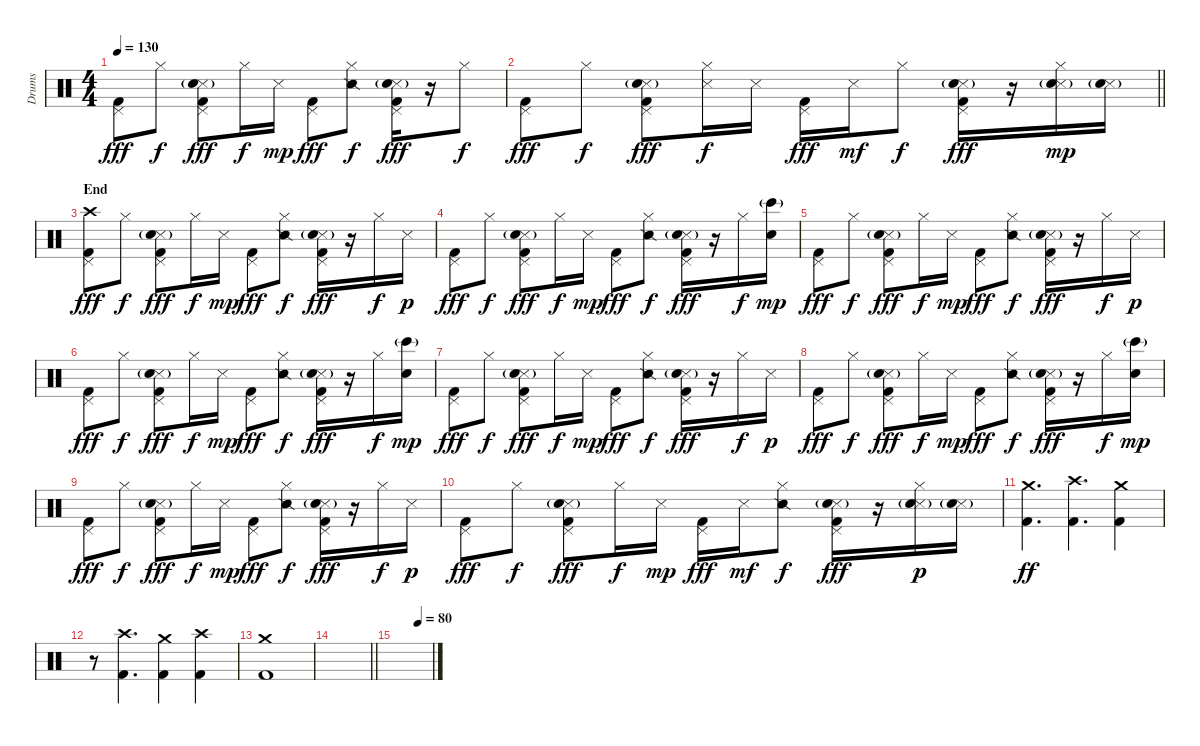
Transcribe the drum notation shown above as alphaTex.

\track ("Drums" "Drums") {instrument percussion}
\staff {score}
\articulation defaults
\ts (4 4)
\tempo 130
\clef neutral
\ks c
("Pedal Hi-Hat (hit)" "Kick (hit) 2").8{dy fff} "Hi-Hat (closed)".8{dy f} ("Pedal Hi-Hat (hit)" "Snare (side stick) 3"{g} "Electric Snare (hit)" "Kick (hit) 2").8{dy fff} "Hi-Hat (closed)".16{dy f} "Snare (side stick) 3".16{dy mp} ("Pedal Hi-Hat (hit)" "Kick (hit) 2").8{dy fff} ("Hi-Hat (closed)" "Snare (side stick) 2").8{dy f} ("Pedal Hi-Hat (hit)" "Snare (side stick) 3"{g} "Electric Snare (hit)" "Kick (hit) 2").16{dy fff} r.16 "Hi-Hat (closed)".8{dy f} |
\barLineRight lightlight
("Pedal Hi-Hat (hit)" "Kick (hit) 2").8{dy fff} "Hi-Hat (closed)".8{dy f} ("Pedal Hi-Hat (hit)" "Snare (side stick) 3"{g} "Electric Snare (hit)" "Kick (hit) 2").8{dy fff} ("Hi-Hat (closed)" "Snare (side stick) 3").16{dy f} "Snare (side stick) 3".16 ("Pedal Hi-Hat (hit)" "Kick (hit) 2").16{dy fff} "Snare (side stick) 3".16{dy mf} "Hi-Hat (closed)".8{dy f} ("Pedal Hi-Hat (hit)" "Snare (side stick) 3"{g} "Electric Snare (hit)" "Kick (hit) 2").16{dy fff} r.16 ("Hi-Hat (closed)" "Snare (side stick) 3"{g} "Electric Snare (hit)").16{dy mp} ("Snare (side stick) 3"{g} "Electric Snare (hit)").16 |
\section ("" "End")
("Crash high (hit)" "Pedal Hi-Hat (hit)" "Kick (hit) 2").8{dy fff} "Hi-Hat (closed)".8{dy f} ("Pedal Hi-Hat (hit)" "Snare (side stick) 3"{g} "Electric Snare (hit)" "Kick (hit) 2").8{dy fff} "Hi-Hat (closed)".16{dy f} "Snare (side stick) 3".16{dy mp} ("Pedal Hi-Hat (hit)" "Kick (hit) 2").8{dy fff} ("Hi-Hat (closed)" "Snare (side stick) 2").8{dy f} ("Pedal Hi-Hat (hit)" "Snare (side stick) 3"{g} "Electric Snare (hit)" "Kick (hit) 2").16{dy fff} r.16 "Hi-Hat (closed)".16{dy f} "Snare (side stick) 3".16{dy p} |
("Pedal Hi-Hat (hit)" "Kick (hit) 2").8{dy fff} "Hi-Hat (closed)".8{dy f} ("Pedal Hi-Hat (hit)" "Snare (side stick) 3"{g} "Electric Snare (hit)" "Kick (hit) 2").8{dy fff} "Hi-Hat (closed)".16{dy f} "Snare (side stick) 3".16{dy mp} ("Pedal Hi-Hat (hit)" "Kick (hit) 2").8{dy fff} ("Hi-Hat (closed)" "Snare (side stick) 2").8{dy f} ("Pedal Hi-Hat (hit)" "Snare (side stick) 3"{g} "Electric Snare (hit)" "Kick (hit) 2").16{dy fff} r.16 "Hi-Hat (closed)".16{dy f} ("Bongo High (hit)"{g} "Electric Snare (hit)").16{dy mp} |
("Pedal Hi-Hat (hit)" "Kick (hit) 2").8{dy fff} "Hi-Hat (closed)".8{dy f} ("Pedal Hi-Hat (hit)" "Snare (side stick) 3"{g} "Electric Snare (hit)" "Kick (hit) 2").8{dy fff} "Hi-Hat (closed)".16{dy f} "Snare (side stick) 3".16{dy mp} ("Pedal Hi-Hat (hit)" "Kick (hit) 2").8{dy fff} ("Hi-Hat (closed)" "Snare (side stick) 2").8{dy f} ("Pedal Hi-Hat (hit)" "Snare (side stick) 3"{g} "Electric Snare (hit)" "Kick (hit) 2").16{dy fff} r.16 "Hi-Hat (closed)".16{dy f} "Snare (side stick) 3".16{dy p} |
("Pedal Hi-Hat (hit)" "Kick (hit) 2").8{dy fff} "Hi-Hat (closed)".8{dy f} ("Pedal Hi-Hat (hit)" "Snare (side stick) 3"{g} "Electric Snare (hit)" "Kick (hit) 2").8{dy fff} "Hi-Hat (closed)".16{dy f} "Snare (side stick) 3".16{dy mp} ("Pedal Hi-Hat (hit)" "Kick (hit) 2").8{dy fff} ("Hi-Hat (closed)" "Snare (side stick) 2").8{dy f} ("Pedal Hi-Hat (hit)" "Snare (side stick) 3"{g} "Electric Snare (hit)" "Kick (hit) 2").16{dy fff} r.16 "Hi-Hat (closed)".16{dy f} ("Bongo High (hit)"{g} "Electric Snare (hit)").16{dy mp} |
("Pedal Hi-Hat (hit)" "Kick (hit) 2").8{dy fff} "Hi-Hat (closed)".8{dy f} ("Pedal Hi-Hat (hit)" "Snare (side stick) 3"{g} "Electric Snare (hit)" "Kick (hit) 2").8{dy fff} "Hi-Hat (closed)".16{dy f} "Snare (side stick) 3".16{dy mp} ("Pedal Hi-Hat (hit)" "Kick (hit) 2").8{dy fff} ("Hi-Hat (closed)" "Snare (side stick) 2").8{dy f} ("Pedal Hi-Hat (hit)" "Snare (side stick) 3"{g} "Electric Snare (hit)" "Kick (hit) 2").16{dy fff} r.16 "Hi-Hat (closed)".16{dy f} "Snare (side stick) 3".16{dy p} |
("Pedal Hi-Hat (hit)" "Kick (hit) 2").8{dy fff} "Hi-Hat (closed)".8{dy f} ("Pedal Hi-Hat (hit)" "Snare (side stick) 3"{g} "Electric Snare (hit)" "Kick (hit) 2").8{dy fff} "Hi-Hat (closed)".16{dy f} "Snare (side stick) 3".16{dy mp} ("Pedal Hi-Hat (hit)" "Kick (hit) 2").8{dy fff} ("Hi-Hat (closed)" "Snare (side stick) 2").8{dy f} ("Pedal Hi-Hat (hit)" "Snare (side stick) 3"{g} "Electric Snare (hit)" "Kick (hit) 2").16{dy fff} r.16 "Hi-Hat (closed)".16{dy f} ("Bongo High (hit)"{g} "Electric Snare (hit)").16{dy mp} |
("Pedal Hi-Hat (hit)" "Kick (hit) 2").8{dy fff} "Hi-Hat (closed)".8{dy f} ("Pedal Hi-Hat (hit)" "Snare (side stick) 3"{g} "Electric Snare (hit)" "Kick (hit) 2").8{dy fff} "Hi-Hat (closed)".16{dy f} "Snare (side stick) 3".16{dy mp} ("Pedal Hi-Hat (hit)" "Kick (hit) 2").8{dy fff} ("Hi-Hat (closed)" "Snare (side stick) 2").8{dy f} ("Pedal Hi-Hat (hit)" "Snare (side stick) 3"{g} "Electric Snare (hit)" "Kick (hit) 2").16{dy fff} r.16 "Hi-Hat (closed)".16{dy f} "Snare (side stick) 3".16{dy p} |
("Pedal Hi-Hat (hit)" "Kick (hit) 2").8{dy fff} "Hi-Hat (closed)".8{dy f} ("Pedal Hi-Hat (hit)" "Snare (side stick) 3"{g} "Electric Snare (hit)" "Kick (hit) 2").8{dy fff} "Hi-Hat (closed)".16{dy f} "Snare (side stick) 3".16{dy mp} ("Pedal Hi-Hat (hit)" "Kick (hit) 2").16{dy fff} "Snare (side stick) 3".16{dy mf} ("Hi-Hat (closed)" "Snare (side stick) 2").8{dy f} ("Pedal Hi-Hat (hit)" "Snare (side stick) 3"{g} "Electric Snare (hit)" "Kick (hit) 2").16{dy fff} r.16 ("Hi-Hat (closed)" "Snare (side stick) 3"{g} "Electric Snare (hit)").16{dy p} ("Snare (side stick) 3"{g} "Electric Snare (hit)").16 |
("Crash medium (hit)" "Kick (hit) 2").4{d dy ff} ("Crash high (hit)" "Kick (hit) 2").4{d} ("Crash medium (hit)" "Kick (hit) 2").4 |
r.8 ("Crash high (hit)" "Kick (hit) 2").4{d} ("Crash medium (hit)" "Kick (hit) 2").4 ("Crash high (hit)" "Kick (hit) 2").4 |
("Crash medium (hit)" "Kick (hit) 2").1 |
\barLineRight lightlight
|
\tempo (80 0.625)
